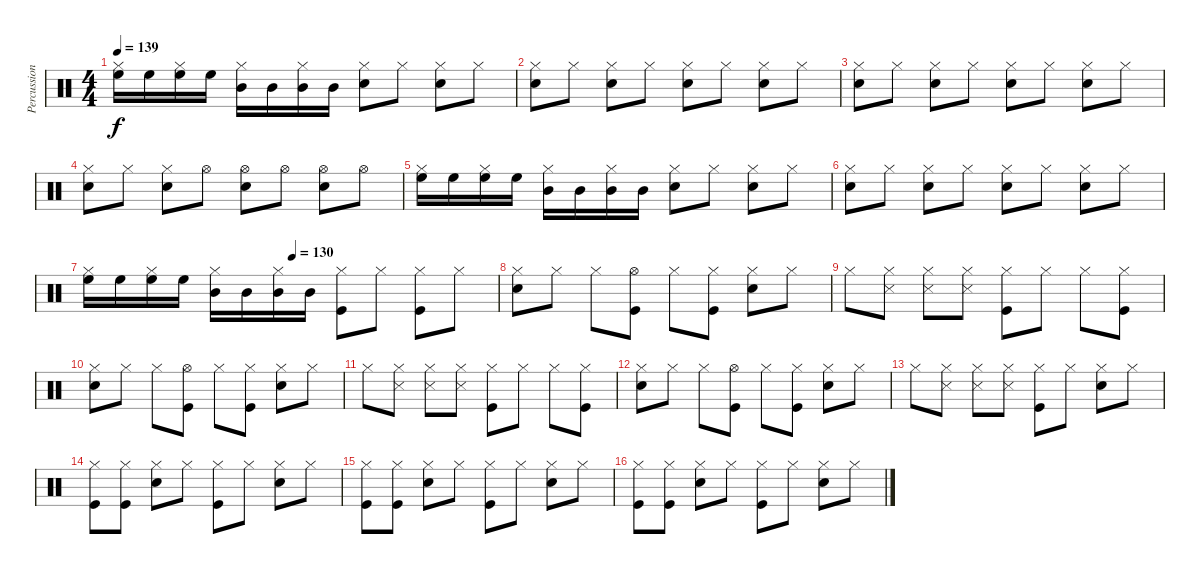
\track ("Percussion" "Percussion") {instrument percussion}
\staff {score}
\articulation defaults
\ts (4 4)
\tempo 139
\clef neutral
\ks c
("High Floor Tom (hit)" "Hi-Hat (closed)").16{dy f} "High Floor Tom (hit)".16 ("High Floor Tom (hit)" "Hi-Hat (closed)").16 "High Floor Tom (hit)".16 ("Mid Tom (hit)" "Hi-Hat (closed)").16 "Mid Tom (hit)".16 ("Mid Tom (hit)" "Hi-Hat (closed)").16 "Mid Tom (hit)".16 ("Electric Snare (hit)" "Hi-Hat (closed)").8 "Hi-Hat (closed)".8 ("Electric Snare (hit)" "Hi-Hat (closed)").8 "Hi-Hat (closed)".8 |
("Electric Snare (hit)" "Hi-Hat (closed)").8 "Hi-Hat (closed)".8 ("Electric Snare (hit)" "Hi-Hat (closed)").8 "Hi-Hat (closed)".8 ("Electric Snare (hit)" "Hi-Hat (closed)").8 "Hi-Hat (closed)".8 ("Electric Snare (hit)" "Hi-Hat (closed)").8 "Hi-Hat (closed)".8 |
("Electric Snare (hit)" "Hi-Hat (closed)").8 "Hi-Hat (closed)".8 ("Electric Snare (hit)" "Hi-Hat (closed)").8 "Hi-Hat (closed)".8 ("Electric Snare (hit)" "Hi-Hat (closed)").8 "Hi-Hat (closed)".8 ("Electric Snare (hit)" "Hi-Hat (closed)").8 "Hi-Hat (closed)".8 |
("Electric Snare (hit)" "Hi-Hat (closed)").8 "Hi-Hat (closed)".8 ("Electric Snare (hit)" "Hi-Hat (closed)").8 "Hi-Hat (open)".8 ("Electric Snare (hit)" "Hi-Hat (open)").8 "Hi-Hat (open)".8 ("Electric Snare (hit)" "Hi-Hat (open)").8 "Hi-Hat (open)".8 |
("High Floor Tom (hit)" "Hi-Hat (closed)").16 "High Floor Tom (hit)".16 ("High Floor Tom (hit)" "Hi-Hat (closed)").16 "High Floor Tom (hit)".16 ("Mid Tom (hit)" "Hi-Hat (closed)").16 "Mid Tom (hit)".16 ("Mid Tom (hit)" "Hi-Hat (closed)").16 "Mid Tom (hit)".16 ("Electric Snare (hit)" "Hi-Hat (closed)").8 "Hi-Hat (closed)".8 ("Electric Snare (hit)" "Hi-Hat (closed)").8 "Hi-Hat (closed)".8 |
("Electric Snare (hit)" "Hi-Hat (closed)").8 "Hi-Hat (closed)".8 ("Electric Snare (hit)" "Hi-Hat (closed)").8 "Hi-Hat (closed)".8 ("Electric Snare (hit)" "Hi-Hat (closed)").8 "Hi-Hat (closed)".8 ("Electric Snare (hit)" "Hi-Hat (closed)").8 "Hi-Hat (closed)".8 |
\tempo (130 0.5)
("High Floor Tom (hit)" "Hi-Hat (closed)").16 "High Floor Tom (hit)".16 ("High Floor Tom (hit)" "Hi-Hat (closed)").16 "High Floor Tom (hit)".16 ("Mid Tom (hit)" "Hi-Hat (closed)").16 "Mid Tom (hit)".16 ("Mid Tom (hit)" "Hi-Hat (closed)").16 "Mid Tom (hit)".16 ("Kick (hit)" "Hi-Hat (closed)").8 "Hi-Hat (closed)".8 ("Kick (hit)" "Hi-Hat (closed)").8 "Hi-Hat (closed)".8 |
("Electric Snare (hit)" "Hi-Hat (closed)").8 "Hi-Hat (closed)".8 "Hi-Hat (closed)".8 ("Kick (hit)" "Hi-Hat (open)").8 "Hi-Hat (closed)".8 ("Kick (hit)" "Hi-Hat (closed)").8 ("Electric Snare (hit)" "Hi-Hat (closed)").8 "Hi-Hat (closed)".8 |
"Hi-Hat (closed)".8 ("Snare (side stick) 3" "Hi-Hat (closed)").8 ("Snare (side stick) 3" "Hi-Hat (closed)").8 ("Snare (side stick) 3" "Hi-Hat (closed)").8 ("Kick (hit)" "Hi-Hat (closed)").8 "Hi-Hat (closed)".8 "Hi-Hat (closed)".8 ("Kick (hit)" "Hi-Hat (closed)").8 |
("Electric Snare (hit)" "Hi-Hat (closed)").8 "Hi-Hat (closed)".8 "Hi-Hat (closed)".8 ("Kick (hit)" "Hi-Hat (open)").8 "Hi-Hat (closed)".8 ("Kick (hit)" "Hi-Hat (closed)").8 ("Electric Snare (hit)" "Hi-Hat (closed)").8 "Hi-Hat (closed)".8 |
"Hi-Hat (closed)".8 ("Snare (side stick) 3" "Hi-Hat (closed)").8 ("Snare (side stick) 3" "Hi-Hat (closed)").8 ("Snare (side stick) 3" "Hi-Hat (closed)").8 ("Kick (hit)" "Hi-Hat (closed)").8 "Hi-Hat (closed)".8 "Hi-Hat (closed)".8 ("Kick (hit)" "Hi-Hat (closed)").8 |
("Electric Snare (hit)" "Hi-Hat (closed)").8 "Hi-Hat (closed)".8 "Hi-Hat (closed)".8 ("Kick (hit)" "Hi-Hat (open)").8 "Hi-Hat (closed)".8 ("Kick (hit)" "Hi-Hat (closed)").8 ("Electric Snare (hit)" "Hi-Hat (closed)").8 "Hi-Hat (closed)".8 |
"Hi-Hat (closed)".8 ("Snare (side stick) 3" "Hi-Hat (closed)").8 ("Snare (side stick) 3" "Hi-Hat (closed)").8 ("Snare (side stick) 3" "Hi-Hat (closed)").8 ("Kick (hit)" "Hi-Hat (closed)").8 "Hi-Hat (closed)".8 ("Snare (hit) 2" "Hi-Hat (closed)").8 "Hi-Hat (closed)".8 |
("Kick (hit)" "Hi-Hat (closed)").8 ("Kick (hit)" "Hi-Hat (closed)").8 ("Snare (hit) 2" "Hi-Hat (closed)").8 "Hi-Hat (closed)".8 ("Kick (hit)" "Hi-Hat (closed)").8 "Hi-Hat (closed)".8 ("Snare (hit) 2" "Hi-Hat (closed)").8 "Hi-Hat (closed)".8 |
("Kick (hit)" "Hi-Hat (closed)").8 ("Kick (hit)" "Hi-Hat (closed)").8 ("Snare (hit) 2" "Hi-Hat (closed)").8 "Hi-Hat (closed)".8 ("Kick (hit)" "Hi-Hat (closed)").8 "Hi-Hat (closed)".8 ("Snare (hit) 2" "Hi-Hat (closed)").8 "Hi-Hat (closed)".8 |
("Kick (hit)" "Hi-Hat (closed)").8 ("Kick (hit)" "Hi-Hat (closed)").8 ("Snare (hit) 2" "Hi-Hat (closed)").8 "Hi-Hat (closed)".8 ("Kick (hit)" "Hi-Hat (closed)").8 "Hi-Hat (closed)".8 ("Snare (hit) 2" "Hi-Hat (closed)").8 "Hi-Hat (closed)".8
